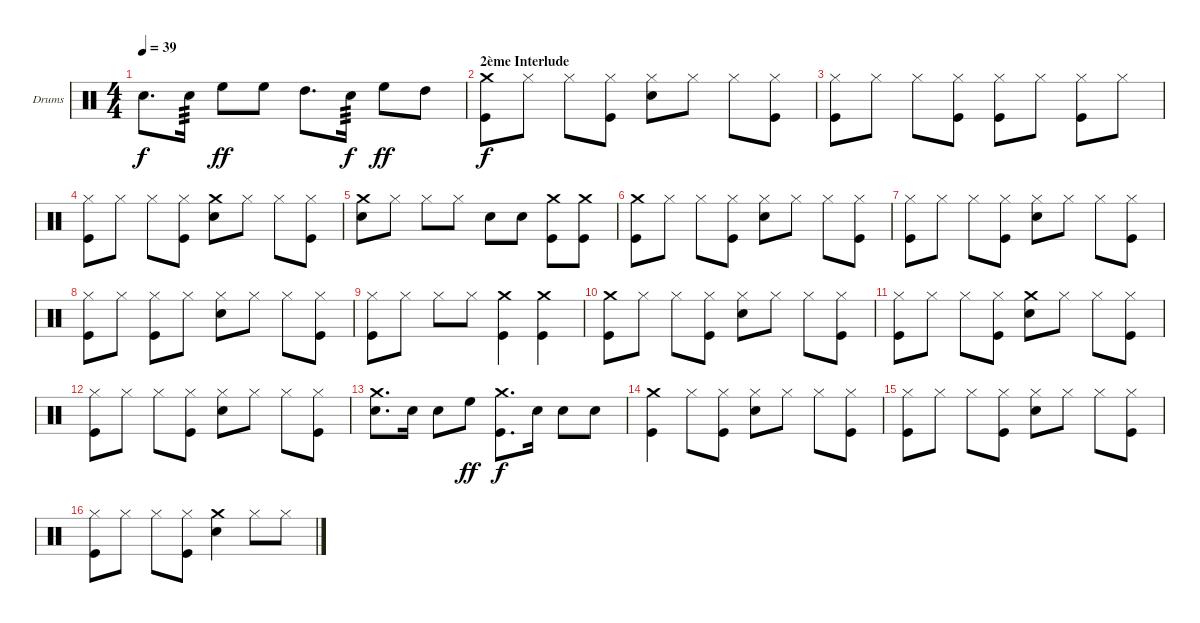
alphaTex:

\bracketExtendMode groupsimilarinstruments
\firstSystemTrackNameOrientation horizontal
\otherSystemsTrackNameOrientation horizontal
\track ("Drumkit" "Drums") {instrument percussion}
\staff {score}
\articulation defaults
\ts (4 4)
\tempo 39
\clef neutral
\ks c "Snare (hit) 2".8{d dy f} "Snare (hit) 2".16{tp 3} "High Floor Tom (hit)".8{dy ff} "High Floor Tom (hit)".8 "High Tom (hit)".8{d} "Snare (hit) 2".16{tp 3 dy f} "High Floor Tom (hit)".8{dy ff} "High Tom (hit)".8
|
\section ("" "2ème Interlude")
("Crash medium (hit)" "Kick (hit)").8{dy f} "Hi-Hat (closed)".8 "Hi-Hat (closed)".8 ("Hi-Hat (closed)" "Kick (hit)").8 ("Hi-Hat (closed)" "Snare (hit) 2").8 "Hi-Hat (closed)".8 "Hi-Hat (closed)".8 ("Hi-Hat (closed)" "Kick (hit)").8 |
("Hi-Hat (closed)" "Kick (hit)").8 "Hi-Hat (closed)".8 "Hi-Hat (closed)".8 ("Hi-Hat (closed)" "Kick (hit)").8 ("Hi-Hat (closed)" "Kick (hit)").8 "Hi-Hat (closed)".8 ("Hi-Hat (closed)" "Kick (hit)").8 "Hi-Hat (closed)".8 |
("Hi-Hat (closed)" "Kick (hit)").8 "Hi-Hat (closed)".8 "Hi-Hat (closed)".8 ("Hi-Hat (closed)" "Kick (hit)").8 ("Crash medium (hit)" "Snare (hit) 2").8 "Hi-Hat (closed)".8 "Hi-Hat (closed)".8 ("Hi-Hat (closed)" "Kick (hit)").8 |
("Crash medium (hit)" "Snare (hit) 2").8 "Hi-Hat (closed)".8 "Hi-Hat (closed)".8 "Hi-Hat (closed)".8 "Snare (hit) 2".8 "Snare (hit) 2".8 ("Crash medium (hit)" "Kick (hit)").8 ("Crash medium (hit)" "Kick (hit)").8 |
("Crash medium (hit)" "Kick (hit)").8 "Hi-Hat (closed)".8 "Hi-Hat (closed)".8 ("Hi-Hat (closed)" "Kick (hit)").8 ("Hi-Hat (closed)" "Snare (hit) 2").8 "Hi-Hat (closed)".8 "Hi-Hat (closed)".8 ("Hi-Hat (closed)" "Kick (hit)").8 |
("Hi-Hat (closed)" "Kick (hit)").8 "Hi-Hat (closed)".8 "Hi-Hat (closed)".8 ("Hi-Hat (closed)" "Kick (hit)").8 ("Hi-Hat (closed)" "Snare (hit) 2").8 "Hi-Hat (closed)".8 "Hi-Hat (closed)".8 ("Hi-Hat (closed)" "Kick (hit)").8 |
("Hi-Hat (closed)" "Kick (hit)").8 "Hi-Hat (closed)".8 ("Hi-Hat (closed)" "Kick (hit)").8 "Hi-Hat (closed)".8 ("Hi-Hat (closed)" "Snare (hit) 2").8 "Hi-Hat (closed)".8 "Hi-Hat (closed)".8 ("Hi-Hat (closed)" "Kick (hit)").8 |
("Hi-Hat (closed)" "Kick (hit)").8 "Hi-Hat (closed)".8 "Hi-Hat (closed)".8 "Hi-Hat (closed)".8 ("Crash medium (hit)" "Kick (hit)").4 ("Crash medium (hit)" "Kick (hit)").4 |
("Crash medium (hit)" "Kick (hit)").8 "Hi-Hat (closed)".8 "Hi-Hat (closed)".8 ("Hi-Hat (closed)" "Kick (hit)").8 ("Hi-Hat (closed)" "Snare (hit) 2").8 "Hi-Hat (closed)".8 "Hi-Hat (closed)".8 ("Hi-Hat (closed)" "Kick (hit)").8 |
("Hi-Hat (closed)" "Kick (hit)").8 "Hi-Hat (closed)".8 "Hi-Hat (closed)".8 ("Hi-Hat (closed)" "Kick (hit)").8 ("Crash medium (hit)" "Snare (hit) 2").8 "Hi-Hat (closed)".8 "Hi-Hat (closed)".8 ("Hi-Hat (closed)" "Kick (hit)").8 |
("Hi-Hat (closed)" "Kick (hit)").8 "Hi-Hat (closed)".8 "Hi-Hat (closed)".8 ("Hi-Hat (closed)" "Kick (hit)").8 ("Hi-Hat (closed)" "Snare (hit) 2").8 "Hi-Hat (closed)".8 "Hi-Hat (closed)".8 ("Hi-Hat (closed)" "Kick (hit)").8 |
("Crash medium (hit)" "Snare (hit) 2").8{d} "Snare (hit) 2".16 "Snare (hit) 2".8 "High Floor Tom (hit)".8{dy ff} ("Crash medium (hit)" "Kick (hit)").8{d dy f} "Snare (hit) 2".16 "Snare (hit) 2".8 "Snare (hit) 2".8 |
("Crash medium (hit)" "Kick (hit)").4 "Hi-Hat (closed)".8 ("Hi-Hat (closed)" "Kick (hit)").8 ("Hi-Hat (closed)" "Snare (hit) 2").8 "Hi-Hat (closed)".8 "Hi-Hat (closed)".8 ("Hi-Hat (closed)" "Kick (hit)").8 |
("Hi-Hat (closed)" "Kick (hit)").8 "Hi-Hat (closed)".8 "Hi-Hat (closed)".8 ("Hi-Hat (closed)" "Kick (hit)").8 ("Hi-Hat (closed)" "Snare (hit) 2").8 "Hi-Hat (closed)".8 "Hi-Hat (closed)".8 ("Hi-Hat (closed)" "Kick (hit)").8 |
("Hi-Hat (closed)" "Kick (hit)").8 "Hi-Hat (closed)".8 "Hi-Hat (closed)".8 ("Hi-Hat (closed)" "Kick (hit)").8 ("Crash medium (hit)" "Snare (hit) 2").4 "Hi-Hat (closed)".8 "Hi-Hat (closed)".8
